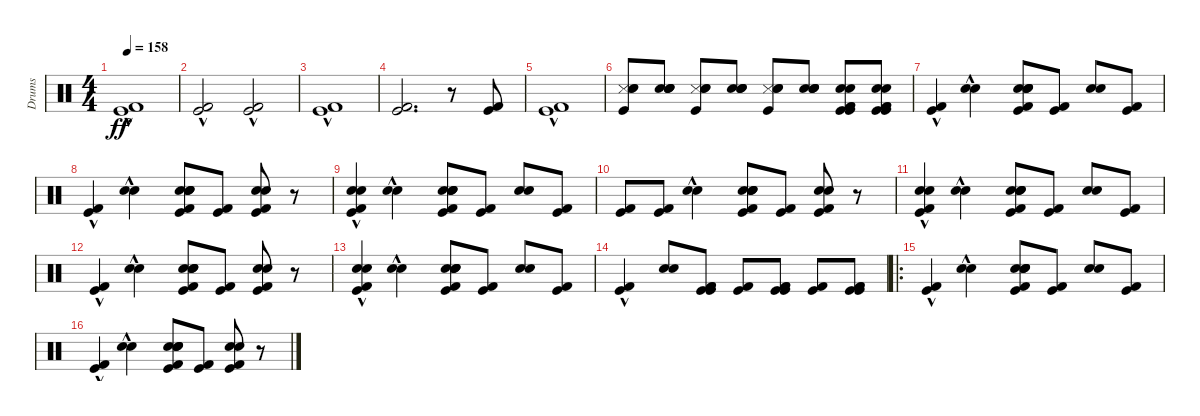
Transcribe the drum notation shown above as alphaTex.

\track ("Drums" "Drums") {instrument percussion}
\staff {score}
\articulation defaults
\ts (4 4)
\tempo 158
\clef neutral
\ks c
("Kick (hit)"{hac} "Kick (hit) 2"{hac}).1{dy ff} |
("Kick (hit)"{hac} "Kick (hit) 2"{hac}).2 ("Kick (hit)"{hac} "Kick (hit) 2"{hac}).2 |
("Kick (hit)"{hac} "Kick (hit) 2"{hac}).1 |
("Kick (hit)" "Kick (hit) 2").2{d} r.8 ("Kick (hit)" "Kick (hit) 2").8 |
("Kick (hit)"{hac} "Kick (hit) 2"{hac}).1 |
("Metronome (hit)" "Kick (hit)" "Snare (hit) 2" "Electric Snare (hit)").8 ("Snare (hit) 2" "Electric Snare (hit)" "Snare (hit) 2" "Electric Snare (hit)").8 ("Metronome (hit)" "Kick (hit)" "Snare (hit) 2" "Electric Snare (hit)").8 ("Snare (hit) 2" "Electric Snare (hit)" "Snare (hit) 2" "Electric Snare (hit)").8 ("Metronome (hit)" "Kick (hit)" "Snare (hit) 2" "Electric Snare (hit)").8 ("Snare (hit) 2" "Electric Snare (hit)" "Snare (hit) 2" "Electric Snare (hit)").8 ("Kick (hit)" "Kick (hit) 2" "Snare (hit) 2" "Electric Snare (hit)" "Kick (hit)" "Kick (hit) 2").8 ("Kick (hit)" "Kick (hit) 2" "Snare (hit) 2" "Electric Snare (hit)" "Kick (hit)" "Kick (hit) 2").8 |
("Kick (hit)"{hac} "Kick (hit) 2"{hac}).4 ("Snare (hit) 2"{hac} "Electric Snare (hit)"{hac}).4 ("Snare (hit) 2" "Electric Snare (hit)" "Kick (hit)" "Kick (hit) 2" "Snare (hit) 2" "Electric Snare (hit)").8 ("Kick (hit)" "Kick (hit) 2").8 ("Snare (hit) 2" "Electric Snare (hit)").8 ("Kick (hit)" "Kick (hit) 2").8 |
("Kick (hit)"{hac} "Kick (hit) 2"{hac}).4 ("Snare (hit) 2"{hac} "Electric Snare (hit)"{hac}).4 ("Snare (hit) 2" "Electric Snare (hit)" "Kick (hit)" "Kick (hit) 2" "Snare (hit) 2" "Electric Snare (hit)").8 ("Kick (hit)" "Kick (hit) 2").8 ("Snare (hit) 2" "Electric Snare (hit)" "Kick (hit)" "Kick (hit) 2").8 r.8 |
("Snare (hit) 2" "Electric Snare (hit)" "Kick (hit)"{hac} "Kick (hit) 2"{hac}).4 ("Snare (hit) 2"{hac} "Electric Snare (hit)"{hac}).4 ("Snare (hit) 2" "Electric Snare (hit)" "Kick (hit)" "Kick (hit) 2" "Snare (hit) 2" "Electric Snare (hit)").8 ("Kick (hit)" "Kick (hit) 2").8 ("Snare (hit) 2" "Electric Snare (hit)").8 ("Kick (hit)" "Kick (hit) 2").8 |
("Kick (hit)" "Kick (hit) 2").8 ("Kick (hit)" "Kick (hit) 2").8 ("Snare (hit) 2"{hac} "Electric Snare (hit)"{hac}).4 ("Snare (hit) 2" "Electric Snare (hit)" "Kick (hit)" "Kick (hit) 2" "Snare (hit) 2" "Electric Snare (hit)").8 ("Kick (hit)" "Kick (hit) 2").8 ("Snare (hit) 2" "Electric Snare (hit)" "Kick (hit)" "Kick (hit) 2").8 r.8 |
("Snare (hit) 2" "Electric Snare (hit)" "Kick (hit)"{hac} "Kick (hit) 2"{hac}).4 ("Snare (hit) 2"{hac} "Electric Snare (hit)"{hac}).4 ("Snare (hit) 2" "Electric Snare (hit)" "Kick (hit)" "Kick (hit) 2" "Snare (hit) 2" "Electric Snare (hit)").8 ("Kick (hit)" "Kick (hit) 2").8 ("Snare (hit) 2" "Electric Snare (hit)").8 ("Kick (hit)" "Kick (hit) 2").8 |
("Kick (hit)"{hac} "Kick (hit) 2"{hac}).4 ("Snare (hit) 2"{hac} "Electric Snare (hit)"{hac}).4 ("Snare (hit) 2" "Electric Snare (hit)" "Kick (hit)" "Kick (hit) 2" "Snare (hit) 2" "Electric Snare (hit)").8 ("Kick (hit)" "Kick (hit) 2").8 ("Snare (hit) 2" "Electric Snare (hit)" "Kick (hit)" "Kick (hit) 2").8 r.8 |
("Snare (hit) 2" "Electric Snare (hit)" "Kick (hit)"{hac} "Kick (hit) 2"{hac}).4 ("Snare (hit) 2"{hac} "Electric Snare (hit)"{hac}).4 ("Snare (hit) 2" "Electric Snare (hit)" "Kick (hit)" "Kick (hit) 2" "Snare (hit) 2" "Electric Snare (hit)").8 ("Kick (hit)" "Kick (hit) 2").8 ("Snare (hit) 2" "Electric Snare (hit)").8 ("Kick (hit)" "Kick (hit) 2").8 |
("Kick (hit)"{hac} "Kick (hit) 2"{hac}).4 ("Snare (hit) 2" "Electric Snare (hit)").8 ("Kick (hit)" "Kick (hit) 2" "Kick (hit)" "Kick (hit) 2").8 ("Kick (hit)" "Kick (hit) 2").8 ("Kick (hit)" "Kick (hit) 2" "Kick (hit)" "Kick (hit) 2").8 ("Kick (hit)" "Kick (hit) 2").8 ("Kick (hit)" "Kick (hit) 2" "Kick (hit)" "Kick (hit) 2").8 |
\ro
("Kick (hit)"{hac} "Kick (hit) 2"{hac}).4 ("Snare (hit) 2"{hac} "Electric Snare (hit)"{hac}).4 ("Snare (hit) 2" "Electric Snare (hit)" "Kick (hit)" "Kick (hit) 2" "Snare (hit) 2" "Electric Snare (hit)").8 ("Kick (hit)" "Kick (hit) 2").8 ("Snare (hit) 2" "Electric Snare (hit)").8 ("Kick (hit)" "Kick (hit) 2").8 |
("Kick (hit)"{hac} "Kick (hit) 2"{hac}).4 ("Snare (hit) 2"{hac} "Electric Snare (hit)"{hac}).4 ("Snare (hit) 2" "Electric Snare (hit)" "Kick (hit)" "Kick (hit) 2" "Snare (hit) 2" "Electric Snare (hit)").8 ("Kick (hit)" "Kick (hit) 2").8 ("Snare (hit) 2" "Electric Snare (hit)" "Kick (hit)" "Kick (hit) 2").8 r.8
